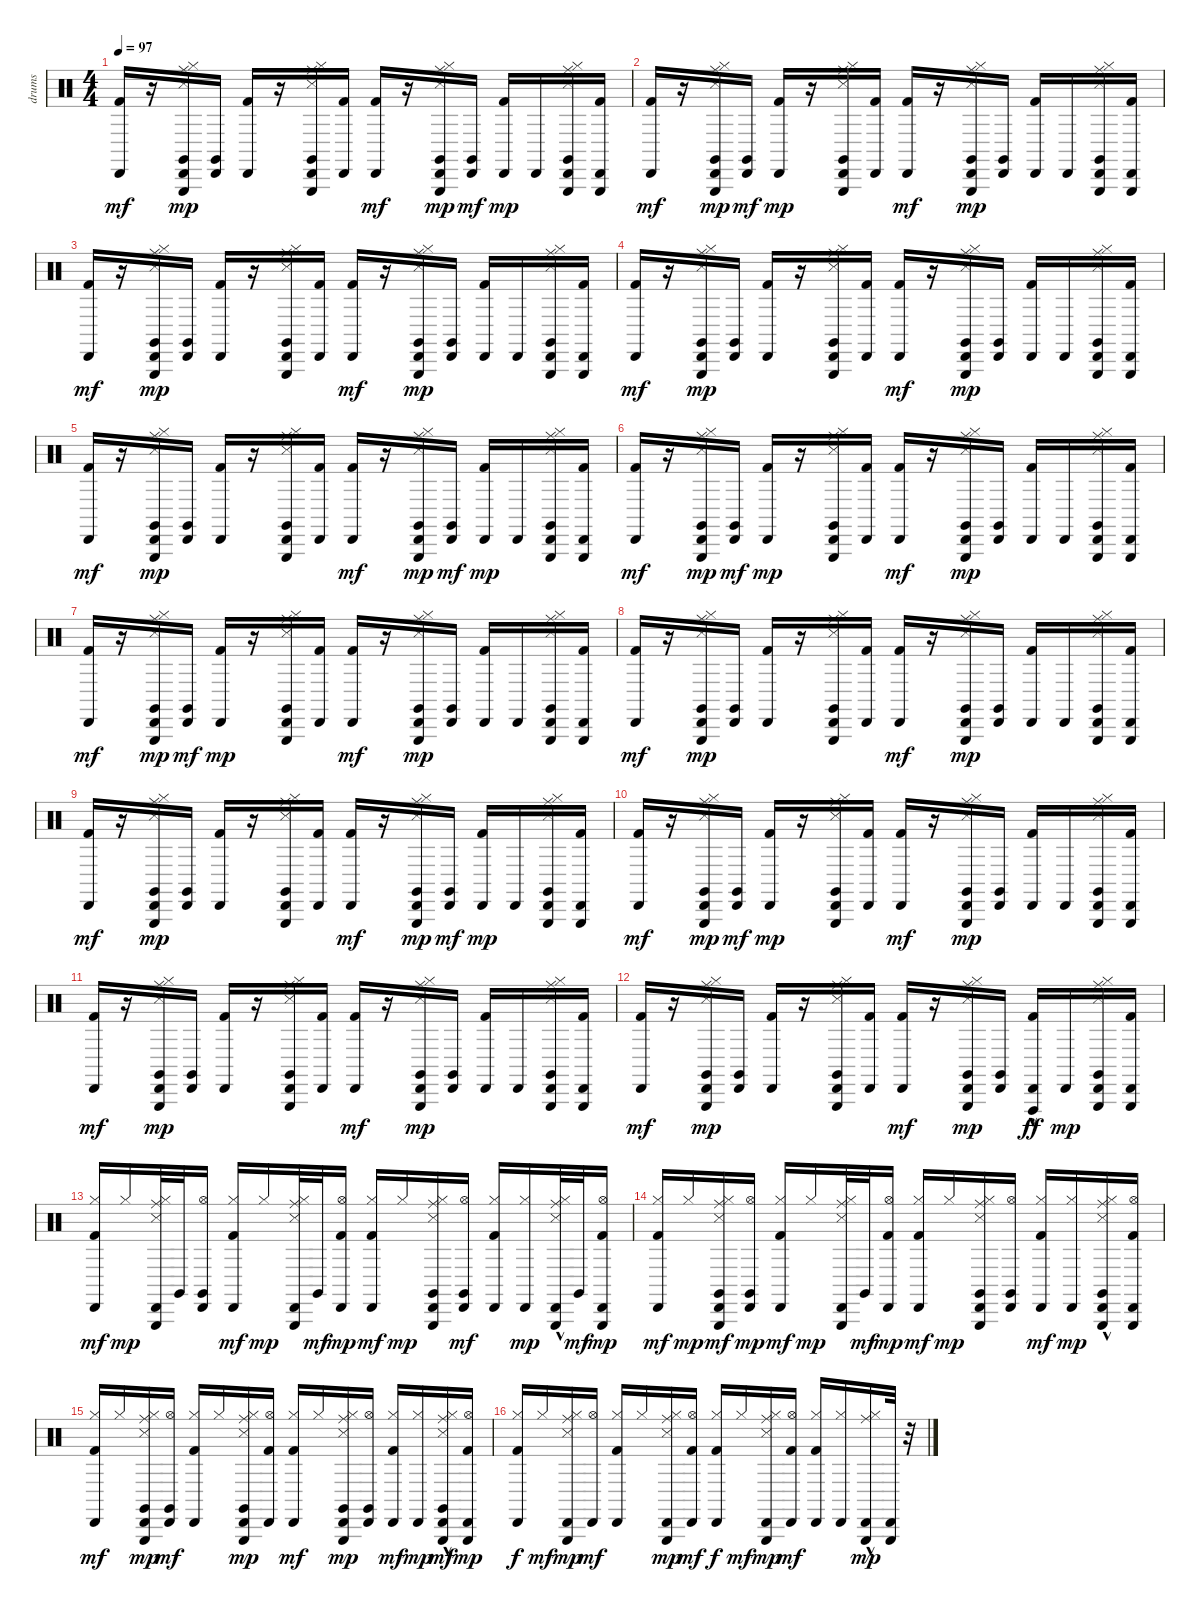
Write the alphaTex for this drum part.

\track ("drums" "drums") {instrument percussion}
\staff {score}
\articulation defaults
\ts (4 4)
\tempo 97
\clef neutral
\ks c
("Kick (hit) 2" "Cabasa (hit)").16{dy mf} r.16 ("Snare (side stick) 3" "Hi-Hat (closed)" "Cabasa (hit)" "Claves (hit)" "Ride (middle)" "Triangle (hit)").16{dy mp} ("Cabasa (hit)" "Claves (hit)").16 ("Kick (hit) 2" "Cabasa (hit)").16 r.16 ("Snare (side stick) 3" "Hi-Hat (closed)" "Cabasa (hit)" "Claves (hit)" "Ride (middle)" "Triangle (hit)").16 ("Kick (hit) 2" "Cabasa (hit)").16 ("Kick (hit) 2" "Cabasa (hit)").16{dy mf} r.16 ("Snare (side stick) 3" "Hi-Hat (closed)" "Cabasa (hit)" "Claves (hit)" "Ride (middle)" "Triangle (hit)").16{dy mp} ("Cabasa (hit)" "Claves (hit)").16{dy mf} ("Kick (hit) 2" "Cabasa (hit)").16{dy mp} "Cabasa (hit)".16 ("Snare (side stick) 3" "Hi-Hat (closed)" "Cabasa (hit)" "Claves (hit)" "Ride (middle)" "Triangle (hit)").16 ("Kick (hit) 2" "Cabasa (hit)" "Triangle (hit)").16 |
("Kick (hit) 2" "Cabasa (hit)").16{dy mf} r.16 ("Snare (side stick) 3" "Hi-Hat (closed)" "Cabasa (hit)" "Claves (hit)" "Ride (middle)" "Triangle (hit)").16{dy mp} ("Cabasa (hit)" "Claves (hit)").16{dy mf} ("Kick (hit) 2" "Cabasa (hit)").16{dy mp} r.16 ("Snare (side stick) 3" "Hi-Hat (closed)" "Cabasa (hit)" "Claves (hit)" "Ride (middle)" "Triangle (hit)").16 ("Kick (hit) 2" "Cabasa (hit)").16 ("Kick (hit) 2" "Cabasa (hit)").16{dy mf} r.16 ("Snare (side stick) 3" "Hi-Hat (closed)" "Cabasa (hit)" "Claves (hit)" "Ride (middle)" "Triangle (hit)").16{dy mp} ("Cabasa (hit)" "Claves (hit)").16 ("Kick (hit) 2" "Cabasa (hit)").16 "Cabasa (hit)".16 ("Snare (side stick) 3" "Hi-Hat (closed)" "Cabasa (hit)" "Claves (hit)" "Ride (middle)" "Triangle (hit)").16 ("Kick (hit) 2" "Cabasa (hit)" "Triangle (hit)").16 |
("Kick (hit) 2" "Cabasa (hit)").16{dy mf} r.16 ("Snare (side stick) 3" "Hi-Hat (closed)" "Cabasa (hit)" "Claves (hit)" "Ride (middle)" "Triangle (hit)").16{dy mp} ("Cabasa (hit)" "Claves (hit)").16 ("Kick (hit) 2" "Cabasa (hit)").16 r.16 ("Snare (side stick) 3" "Hi-Hat (closed)" "Cabasa (hit)" "Claves (hit)" "Ride (middle)" "Triangle (hit)").16 ("Kick (hit) 2" "Cabasa (hit)").16 ("Kick (hit) 2" "Cabasa (hit)").16{dy mf} r.16 ("Snare (side stick) 3" "Hi-Hat (closed)" "Cabasa (hit)" "Claves (hit)" "Ride (middle)" "Triangle (hit)").16{dy mp} ("Cabasa (hit)" "Claves (hit)").16 ("Kick (hit) 2" "Cabasa (hit)").16 "Cabasa (hit)".16 ("Snare (side stick) 3" "Hi-Hat (closed)" "Cabasa (hit)" "Claves (hit)" "Ride (middle)" "Triangle (hit)").16 ("Kick (hit) 2" "Cabasa (hit)" "Triangle (hit)").16 |
("Kick (hit) 2" "Cabasa (hit)").16{dy mf} r.16 ("Snare (side stick) 3" "Hi-Hat (closed)" "Cabasa (hit)" "Claves (hit)" "Ride (middle)" "Triangle (hit)").16{dy mp} ("Cabasa (hit)" "Claves (hit)").16 ("Kick (hit) 2" "Cabasa (hit)").16 r.16 ("Snare (side stick) 3" "Hi-Hat (closed)" "Cabasa (hit)" "Claves (hit)" "Ride (middle)" "Triangle (hit)").16 ("Kick (hit) 2" "Cabasa (hit)").16 ("Kick (hit) 2" "Cabasa (hit)").16{dy mf} r.16 ("Snare (side stick) 3" "Hi-Hat (closed)" "Cabasa (hit)" "Claves (hit)" "Ride (middle)" "Triangle (hit)").16{dy mp} ("Cabasa (hit)" "Claves (hit)").16 ("Kick (hit) 2" "Cabasa (hit)").16 "Cabasa (hit)".16 ("Snare (side stick) 3" "Hi-Hat (closed)" "Cabasa (hit)" "Claves (hit)" "Ride (middle)" "Triangle (hit)").16 ("Kick (hit) 2" "Cabasa (hit)" "Triangle (hit)").16 |
("Kick (hit) 2" "Cabasa (hit)").16{dy mf} r.16 ("Snare (side stick) 3" "Hi-Hat (closed)" "Cabasa (hit)" "Claves (hit)" "Ride (middle)" "Triangle (hit)").16{dy mp} ("Cabasa (hit)" "Claves (hit)").16 ("Kick (hit) 2" "Cabasa (hit)").16 r.16 ("Snare (side stick) 3" "Hi-Hat (closed)" "Cabasa (hit)" "Claves (hit)" "Ride (middle)" "Triangle (hit)").16 ("Kick (hit) 2" "Cabasa (hit)").16 ("Kick (hit) 2" "Cabasa (hit)").16{dy mf} r.16 ("Snare (side stick) 3" "Hi-Hat (closed)" "Cabasa (hit)" "Claves (hit)" "Ride (middle)" "Triangle (hit)").16{dy mp} ("Cabasa (hit)" "Claves (hit)").16{dy mf} ("Kick (hit) 2" "Cabasa (hit)").16{dy mp} "Cabasa (hit)".16 ("Snare (side stick) 3" "Hi-Hat (closed)" "Cabasa (hit)" "Claves (hit)" "Ride (middle)" "Triangle (hit)").16 ("Kick (hit) 2" "Cabasa (hit)" "Triangle (hit)").16 |
("Kick (hit) 2" "Cabasa (hit)").16{dy mf} r.16 ("Snare (side stick) 3" "Hi-Hat (closed)" "Cabasa (hit)" "Claves (hit)" "Ride (middle)" "Triangle (hit)").16{dy mp} ("Cabasa (hit)" "Claves (hit)").16{dy mf} ("Kick (hit) 2" "Cabasa (hit)").16{dy mp} r.16 ("Snare (side stick) 3" "Hi-Hat (closed)" "Cabasa (hit)" "Claves (hit)" "Ride (middle)" "Triangle (hit)").16 ("Kick (hit) 2" "Cabasa (hit)").16 ("Kick (hit) 2" "Cabasa (hit)").16{dy mf} r.16 ("Snare (side stick) 3" "Hi-Hat (closed)" "Cabasa (hit)" "Claves (hit)" "Ride (middle)" "Triangle (hit)").16{dy mp} ("Cabasa (hit)" "Claves (hit)").16 ("Kick (hit) 2" "Cabasa (hit)").16 "Cabasa (hit)".16 ("Snare (side stick) 3" "Hi-Hat (closed)" "Cabasa (hit)" "Claves (hit)" "Ride (middle)" "Triangle (hit)").16 ("Kick (hit) 2" "Cabasa (hit)" "Triangle (hit)").16 |
("Kick (hit) 2" "Cabasa (hit)").16{dy mf} r.16 ("Snare (side stick) 3" "Hi-Hat (closed)" "Cabasa (hit)" "Claves (hit)" "Ride (middle)" "Triangle (hit)").16{dy mp} ("Cabasa (hit)" "Claves (hit)").16{dy mf} ("Kick (hit) 2" "Cabasa (hit)").16{dy mp} r.16 ("Snare (side stick) 3" "Hi-Hat (closed)" "Cabasa (hit)" "Claves (hit)" "Ride (middle)" "Triangle (hit)").16 ("Kick (hit) 2" "Cabasa (hit)").16 ("Kick (hit) 2" "Cabasa (hit)").16{dy mf} r.16 ("Snare (side stick) 3" "Hi-Hat (closed)" "Cabasa (hit)" "Claves (hit)" "Ride (middle)" "Triangle (hit)").16{dy mp} ("Cabasa (hit)" "Claves (hit)").16 ("Kick (hit) 2" "Cabasa (hit)").16 "Cabasa (hit)".16 ("Snare (side stick) 3" "Hi-Hat (closed)" "Cabasa (hit)" "Claves (hit)" "Ride (middle)" "Triangle (hit)").16 ("Kick (hit) 2" "Cabasa (hit)" "Triangle (hit)").16 |
("Kick (hit) 2" "Cabasa (hit)").16{dy mf} r.16 ("Snare (side stick) 3" "Hi-Hat (closed)" "Cabasa (hit)" "Claves (hit)" "Ride (middle)" "Triangle (hit)").16{dy mp} ("Cabasa (hit)" "Claves (hit)").16 ("Kick (hit) 2" "Cabasa (hit)").16 r.16 ("Snare (side stick) 3" "Hi-Hat (closed)" "Cabasa (hit)" "Claves (hit)" "Ride (middle)" "Triangle (hit)").16 ("Kick (hit) 2" "Cabasa (hit)").16 ("Kick (hit) 2" "Cabasa (hit)").16{dy mf} r.16 ("Snare (side stick) 3" "Hi-Hat (closed)" "Cabasa (hit)" "Claves (hit)" "Ride (middle)" "Triangle (hit)").16{dy mp} ("Cabasa (hit)" "Claves (hit)").16 ("Kick (hit) 2" "Cabasa (hit)").16 "Cabasa (hit)".16 ("Snare (side stick) 3" "Hi-Hat (closed)" "Cabasa (hit)" "Claves (hit)" "Ride (middle)" "Triangle (hit)").16 ("Kick (hit) 2" "Cabasa (hit)" "Triangle (hit)").16 |
("Kick (hit) 2" "Cabasa (hit)").16{dy mf} r.16 ("Snare (side stick) 3" "Hi-Hat (closed)" "Cabasa (hit)" "Claves (hit)" "Ride (middle)" "Triangle (hit)").16{dy mp} ("Cabasa (hit)" "Claves (hit)").16 ("Kick (hit) 2" "Cabasa (hit)").16 r.16 ("Snare (side stick) 3" "Hi-Hat (closed)" "Cabasa (hit)" "Claves (hit)" "Ride (middle)" "Triangle (hit)").16 ("Kick (hit) 2" "Cabasa (hit)").16 ("Kick (hit) 2" "Cabasa (hit)").16{dy mf} r.16 ("Snare (side stick) 3" "Hi-Hat (closed)" "Cabasa (hit)" "Claves (hit)" "Ride (middle)" "Triangle (hit)").16{dy mp} ("Cabasa (hit)" "Claves (hit)").16{dy mf} ("Kick (hit) 2" "Cabasa (hit)").16{dy mp} "Cabasa (hit)".16 ("Snare (side stick) 3" "Hi-Hat (closed)" "Cabasa (hit)" "Claves (hit)" "Ride (middle)" "Triangle (hit)").16 ("Kick (hit) 2" "Cabasa (hit)" "Triangle (hit)").16 |
("Kick (hit) 2" "Cabasa (hit)").16{dy mf} r.16 ("Snare (side stick) 3" "Hi-Hat (closed)" "Cabasa (hit)" "Claves (hit)" "Ride (middle)" "Triangle (hit)").16{dy mp} ("Cabasa (hit)" "Claves (hit)").16{dy mf} ("Kick (hit) 2" "Cabasa (hit)").16{dy mp} r.16 ("Snare (side stick) 3" "Hi-Hat (closed)" "Cabasa (hit)" "Claves (hit)" "Ride (middle)" "Triangle (hit)").16 ("Kick (hit) 2" "Cabasa (hit)").16 ("Kick (hit) 2" "Cabasa (hit)").16{dy mf} r.16 ("Snare (side stick) 3" "Hi-Hat (closed)" "Cabasa (hit)" "Claves (hit)" "Ride (middle)" "Triangle (hit)").16{dy mp} ("Cabasa (hit)" "Claves (hit)").16 ("Kick (hit) 2" "Cabasa (hit)").16 "Cabasa (hit)".16 ("Snare (side stick) 3" "Hi-Hat (closed)" "Cabasa (hit)" "Claves (hit)" "Ride (middle)" "Triangle (hit)").16 ("Kick (hit) 2" "Cabasa (hit)" "Triangle (hit)").16 |
("Kick (hit) 2" "Cabasa (hit)").16{dy mf} r.16 ("Snare (side stick) 3" "Hi-Hat (closed)" "Cabasa (hit)" "Claves (hit)" "Ride (middle)" "Triangle (hit)").16{dy mp} ("Cabasa (hit)" "Claves (hit)").16 ("Kick (hit) 2" "Cabasa (hit)").16 r.16 ("Snare (side stick) 3" "Hi-Hat (closed)" "Cabasa (hit)" "Claves (hit)" "Ride (middle)" "Triangle (hit)").16 ("Kick (hit) 2" "Cabasa (hit)").16 ("Kick (hit) 2" "Cabasa (hit)").16{dy mf} r.16 ("Snare (side stick) 3" "Hi-Hat (closed)" "Cabasa (hit)" "Claves (hit)" "Ride (middle)" "Triangle (hit)").16{dy mp} ("Cabasa (hit)" "Claves (hit)").16 ("Kick (hit) 2" "Cabasa (hit)").16 "Cabasa (hit)".16 ("Snare (side stick) 3" "Hi-Hat (closed)" "Cabasa (hit)" "Claves (hit)" "Ride (middle)" "Triangle (hit)").16 ("Kick (hit) 2" "Cabasa (hit)" "Triangle (hit)").16 |
("Kick (hit) 2" "Cabasa (hit)").16{dy mf} r.16 ("Snare (side stick) 3" "Hi-Hat (closed)" "Cabasa (hit)" "Claves (hit)" "Ride (middle)" "Triangle (hit)").16{dy mp} ("Cabasa (hit)" "Claves (hit)").16 ("Kick (hit) 2" "Cabasa (hit)").16 r.16 ("Snare (side stick) 3" "Hi-Hat (closed)" "Cabasa (hit)" "Claves (hit)" "Ride (middle)" "Triangle (hit)").16 ("Kick (hit) 2" "Cabasa (hit)").16 ("Kick (hit) 2" "Cabasa (hit)").16{dy mf} r.16 ("Snare (side stick) 3" "Hi-Hat (closed)" "Cabasa (hit)" "Claves (hit)" "Ride (middle)" "Triangle (hit)").16{dy mp} ("Cabasa (hit)" "Claves (hit)").16 ("Kick (hit) 2" "Cabasa (hit)" "Vibraslap (hit)"{hac}).16{dy ff} "Cabasa (hit)".16{dy mp} ("Snare (side stick) 3" "Hi-Hat (closed)" "Cabasa (hit)" "Claves (hit)" "Ride (middle)" "Triangle (hit)").16 ("Kick (hit) 2" "Cabasa (hit)" "Triangle (hit)").16 |
("Kick (hit) 2" "Hi-Hat (closed)" "Cabasa (hit)").16{dy mf} "Hi-Hat (closed)".16{dy mp} ("Snare (side stick) 3" "Hi-Hat (closed)" "Cabasa (hit)" "Ride (middle)" "Triangle (hit)").32 "Claves (hit)".32 ("Hi-Hat (open)" "Cabasa (hit)" "Claves (hit)").16 ("Kick (hit) 2" "Hi-Hat (closed)" "Cabasa (hit)").16{dy mf} "Hi-Hat (closed)".16{dy mp} ("Snare (side stick) 3" "Hi-Hat (closed)" "Cabasa (hit)" "Triangle (hit)" "Ride (middle)").32 "Claves (hit)".32{dy mf} ("Kick (hit) 2" "Hi-Hat (open)" "Cabasa (hit)").16{dy mp} ("Kick (hit) 2" "Hi-Hat (closed)" "Cabasa (hit)").16{dy mf} "Hi-Hat (closed)".16{dy mp} ("Snare (side stick) 3" "Hi-Hat (closed)" "Cabasa (hit)" "Claves (hit)" "Triangle (hit)" "Ride (middle)").16 ("Hi-Hat (open)" "Cabasa (hit)" "Claves (hit)").16{dy mf} ("Kick (hit) 2" "Hi-Hat (closed)" "Cabasa (hit)").16 ("Hi-Hat (closed)" "Cabasa (hit)").16{dy mp} ("Snare (side stick) 3" "Hi-Hat (closed)" "Cabasa (hit)" "Ride (middle)"{hac} "Triangle (hit)").32 "Claves (hit)".32{dy mf} ("Kick (hit) 2" "Hi-Hat (open)" "Cabasa (hit)" "Triangle (hit)").16{dy mp} |
("Kick (hit) 2" "Hi-Hat (closed)" "Cabasa (hit)").16{dy mf} "Hi-Hat (closed)".16{dy mp} ("Snare (side stick) 3" "Hi-Hat (closed)" "Cabasa (hit)" "Claves (hit)" "Triangle (hit)" "Ride (middle)").16{dy mf} ("Claves (hit)" "Hi-Hat (open)" "Cabasa (hit)").16{dy mp} ("Kick (hit) 2" "Hi-Hat (closed)" "Cabasa (hit)").16{dy mf} "Hi-Hat (closed)".16{dy mp} ("Snare (side stick) 3" "Hi-Hat (closed)" "Cabasa (hit)" "Ride (middle)" "Triangle (hit)").32 "Claves (hit)".32{dy mf} ("Kick (hit) 2" "Hi-Hat (open)" "Cabasa (hit)").16{dy mp} ("Kick (hit) 2" "Hi-Hat (closed)" "Cabasa (hit)").16{dy mf} "Hi-Hat (closed)".16{dy mp} ("Triangle (hit)" "Snare (side stick) 3" "Hi-Hat (closed)" "Cabasa (hit)" "Ride (middle)" "Claves (hit)").16 ("Hi-Hat (open)" "Cabasa (hit)" "Claves (hit)").16 ("Kick (hit) 2" "Hi-Hat (closed)" "Cabasa (hit)").16{dy mf} ("Hi-Hat (closed)" "Cabasa (hit)").16{dy mp} ("Snare (side stick) 3" "Hi-Hat (closed)" "Cabasa (hit)" "Claves (hit)" "Ride (middle)"{hac} "Triangle (hit)").16 ("Kick (hit) 2" "Hi-Hat (open)" "Cabasa (hit)" "Triangle (hit)").16 |
("Kick (hit) 2" "Hi-Hat (closed)" "Cabasa (hit)").16{dy mf} "Hi-Hat (closed)".16 ("Snare (side stick) 3" "Hi-Hat (closed)" "Cabasa (hit)" "Ride (middle)" "Claves (hit)" "Triangle (hit)").16{dy mp} ("Hi-Hat (open)" "Cabasa (hit)" "Claves (hit)").16{dy mf} ("Kick (hit) 2" "Hi-Hat (closed)" "Cabasa (hit)").16 "Hi-Hat (closed)".16 ("Triangle (hit)" "Snare (side stick) 3" "Hi-Hat (closed)" "Cabasa (hit)" "Ride (middle)" "Claves (hit)").16{dy mp} ("Kick (hit) 2" "Hi-Hat (open)" "Cabasa (hit)").16 ("Kick (hit) 2" "Hi-Hat (closed)" "Cabasa (hit)").16{dy mf} "Hi-Hat (closed)".16 ("Snare (side stick) 3" "Hi-Hat (closed)" "Cabasa (hit)" "Claves (hit)" "Ride (middle)" "Triangle (hit)").16{dy mp} ("Claves (hit)" "Hi-Hat (open)" "Cabasa (hit)").16 ("Kick (hit) 2" "Hi-Hat (closed)" "Cabasa (hit)").16{dy mf} ("Hi-Hat (closed)" "Cabasa (hit)").16{dy mp} ("Snare (side stick) 3" "Hi-Hat (closed)" "Cabasa (hit)" "Ride (middle)"{hac} "Triangle (hit)" "Claves (hit)").16{dy mf} ("Kick (hit) 2" "Hi-Hat (open)" "Cabasa (hit)" "Triangle (hit)").16{dy mp} |
("Kick (hit) 2" "Hi-Hat (closed)" "Cabasa (hit)").16{dy f} "Hi-Hat (closed)".16{dy mf} ("Snare (side stick) 3" "Hi-Hat (closed)" "Cabasa (hit)" "Ride (middle)" "Triangle (hit)").16{dy mp} ("Hi-Hat (open)" "Cabasa (hit)").16{dy mf} ("Kick (hit) 2" "Hi-Hat (closed)" "Cabasa (hit)").16 "Hi-Hat (closed)".16 ("Snare (side stick) 3" "Hi-Hat (closed)" "Cabasa (hit)" "Ride (middle)" "Triangle (hit)").16{dy mp} ("Kick (hit) 2" "Hi-Hat (open)" "Cabasa (hit)").16{dy mf} ("Kick (hit) 2" "Hi-Hat (closed)" "Cabasa (hit)").16{dy f} "Hi-Hat (closed)".16{dy mf} ("Snare (side stick) 3" "Hi-Hat (closed)" "Cabasa (hit)" "Ride (middle)" "Triangle (hit)").16{dy mp} ("Kick (hit) 2" "Hi-Hat (open)" "Cabasa (hit)").16{dy mf} ("Kick (hit) 2" "Hi-Hat (closed)" "Cabasa (hit)").16 ("Hi-Hat (closed)" "Cabasa (hit)").16 ("Hi-Hat (closed)" "Cabasa (hit)" "Ride (middle)"{hac} "Triangle (hit)").16{dy mp} ("Cabasa (hit)" "Triangle (hit)").32 r.32
